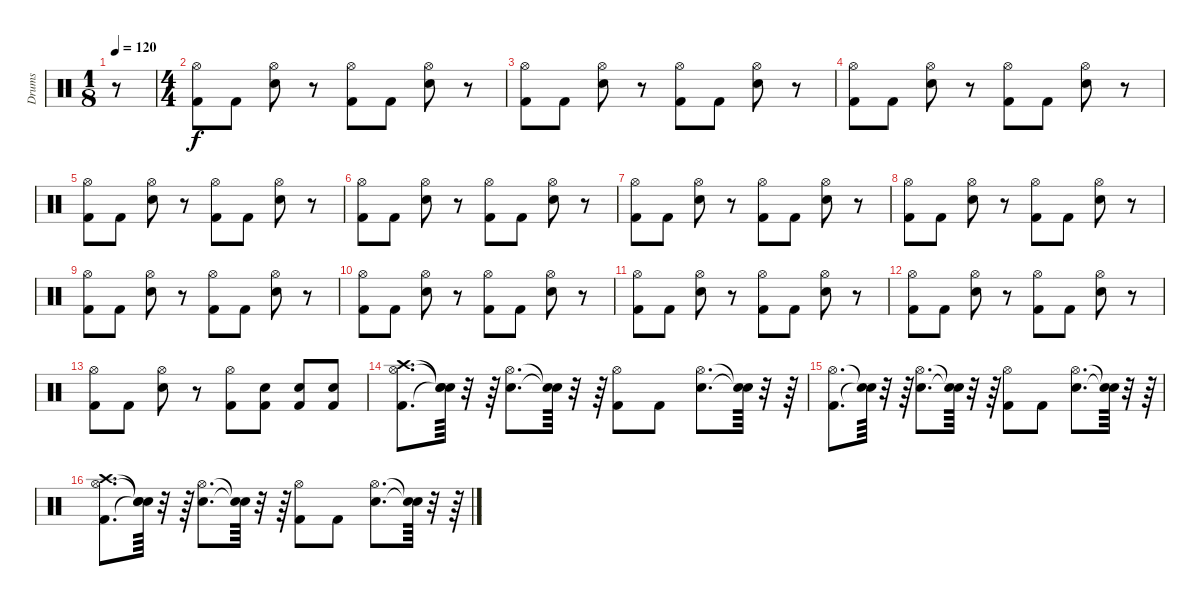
\track ("Drums" "Drums") {instrument percussion}
\staff {score}
\articulation defaults
\ts (1 8)
\tempo 120
\clef neutral
\ks c
r.8{dy f} |
\ts (4 4)
("Kick (hit) 2" "Hi-Hat (open)").8 "Kick (hit) 2".8 ("Snare (hit) 2" "Hi-Hat (open)").8 r.8 ("Kick (hit) 2" "Hi-Hat (open)").8 "Kick (hit) 2".8 ("Snare (hit) 2" "Hi-Hat (open)").8 r.8 |
("Kick (hit) 2" "Hi-Hat (open)").8 "Kick (hit) 2".8 ("Snare (hit) 2" "Hi-Hat (open)").8 r.8 ("Kick (hit) 2" "Hi-Hat (open)").8 "Kick (hit) 2".8 ("Snare (hit) 2" "Hi-Hat (open)").8 r.8 |
("Kick (hit) 2" "Hi-Hat (open)").8 "Kick (hit) 2".8 ("Snare (hit) 2" "Hi-Hat (open)").8 r.8 ("Kick (hit) 2" "Hi-Hat (open)").8 "Kick (hit) 2".8 ("Snare (hit) 2" "Hi-Hat (open)").8 r.8 |
("Kick (hit) 2" "Hi-Hat (open)").8 "Kick (hit) 2".8 ("Snare (hit) 2" "Hi-Hat (open)").8 r.8 ("Kick (hit) 2" "Hi-Hat (open)").8 "Kick (hit) 2".8 ("Snare (hit) 2" "Hi-Hat (open)").8 r.8 |
("Kick (hit) 2" "Hi-Hat (open)").8 "Kick (hit) 2".8 ("Snare (hit) 2" "Hi-Hat (open)").8 r.8 ("Kick (hit) 2" "Hi-Hat (open)").8 "Kick (hit) 2".8 ("Snare (hit) 2" "Hi-Hat (open)").8 r.8 |
("Kick (hit) 2" "Hi-Hat (open)").8 "Kick (hit) 2".8 ("Snare (hit) 2" "Hi-Hat (open)").8 r.8 ("Kick (hit) 2" "Hi-Hat (open)").8 "Kick (hit) 2".8 ("Snare (hit) 2" "Hi-Hat (open)").8 r.8 |
("Kick (hit) 2" "Hi-Hat (open)").8 "Kick (hit) 2".8 ("Snare (hit) 2" "Hi-Hat (open)").8 r.8 ("Kick (hit) 2" "Hi-Hat (open)").8 "Kick (hit) 2".8 ("Snare (hit) 2" "Hi-Hat (open)").8 r.8 |
("Kick (hit) 2" "Hi-Hat (open)").8 "Kick (hit) 2".8 ("Snare (hit) 2" "Hi-Hat (open)").8 r.8 ("Kick (hit) 2" "Hi-Hat (open)").8 "Kick (hit) 2".8 ("Snare (hit) 2" "Hi-Hat (open)").8 r.8 |
("Kick (hit) 2" "Hi-Hat (open)").8 "Kick (hit) 2".8 ("Snare (hit) 2" "Hi-Hat (open)").8 r.8 ("Kick (hit) 2" "Hi-Hat (open)").8 "Kick (hit) 2".8 ("Snare (hit) 2" "Hi-Hat (open)").8 r.8 |
("Kick (hit) 2" "Hi-Hat (open)").8 "Kick (hit) 2".8 ("Snare (hit) 2" "Hi-Hat (open)").8 r.8 ("Kick (hit) 2" "Hi-Hat (open)").8 "Kick (hit) 2".8 ("Snare (hit) 2" "Hi-Hat (open)").8 r.8 |
("Kick (hit) 2" "Hi-Hat (open)").8 "Kick (hit) 2".8 ("Snare (hit) 2" "Hi-Hat (open)").8 r.8 ("Kick (hit) 2" "Hi-Hat (open)").8 "Kick (hit) 2".8 ("Snare (hit) 2" "Hi-Hat (open)").8 r.8 |
("Kick (hit) 2" "Hi-Hat (open)").8 "Kick (hit) 2".8 ("Snare (hit) 2" "Hi-Hat (open)").8 r.8 ("Kick (hit) 2" "Hi-Hat (open)").8 ("Kick (hit) 2" "Snare (hit) 2").8 ("Kick (hit) 2" "Snare (hit) 2").8 ("Kick (hit) 2" "Snare (hit) 2").8 |
("Kick (hit) 2" "Hi-Hat (open)" "Crash high (hit)").8{d} ("Snare (hit)"{t} "Snare (hit)"{t} "Snare (hit)"{t}).64 r.32 r.64 ("Snare (hit) 2" "Hi-Hat (open)").8{d} ("Snare (hit)"{t} "Snare (hit)"{t}).64 r.32 r.64 ("Kick (hit) 2" "Hi-Hat (open)").8 "Kick (hit) 2".8 ("Snare (hit) 2" "Hi-Hat (open)").8{d} ("Snare (hit)"{t} "Snare (hit)"{t}).64 r.32 r.64 |
("Kick (hit) 2" "Hi-Hat (open)").8{d} ("Snare (hit)"{t} "Snare (hit)"{t}).64 r.32 r.64 ("Snare (hit) 2" "Hi-Hat (open)").8{d} ("Snare (hit)"{t} "Snare (hit)"{t}).64 r.32 r.64 ("Kick (hit) 2" "Hi-Hat (open)").8 "Kick (hit) 2".8 ("Snare (hit) 2" "Hi-Hat (open)").8{d} ("Snare (hit)"{t} "Snare (hit)"{t}).64 r.32 r.64 |
("Kick (hit) 2" "Hi-Hat (open)" "Crash high (hit)").8{d} ("Snare (hit)"{t} "Snare (hit)"{t} "Snare (hit)"{t}).64 r.32 r.64 ("Snare (hit) 2" "Hi-Hat (open)").8{d} ("Snare (hit)"{t} "Snare (hit)"{t}).64 r.32 r.64 ("Kick (hit) 2" "Hi-Hat (open)").8 "Kick (hit) 2".8 ("Snare (hit) 2" "Hi-Hat (open)").8{d} ("Snare (hit)"{t} "Snare (hit)"{t}).64 r.32 r.64
